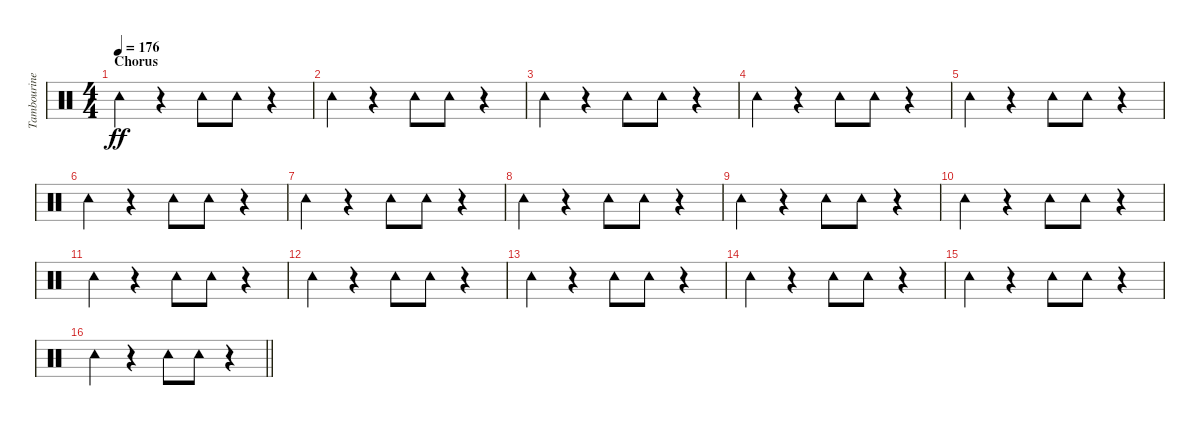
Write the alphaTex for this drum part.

\track ("Tambourine" "Tambourine") {instrument percussion}
\staff {score}
\articulation defaults
\ts (4 4)
\section ("" "Chorus")
\tempo 176
\clef neutral
\ks c "Tambourine (hit)".4{dy ff}
r.4 "Tambourine (hit)".8 "Tambourine (hit)".8 r.4 |
"Tambourine (hit)".4 r.4 "Tambourine (hit)".8 "Tambourine (hit)".8 r.4 |
"Tambourine (hit)".4 r.4 "Tambourine (hit)".8 "Tambourine (hit)".8 r.4 |
"Tambourine (hit)".4 r.4 "Tambourine (hit)".8 "Tambourine (hit)".8 r.4 |
"Tambourine (hit)".4 r.4 "Tambourine (hit)".8 "Tambourine (hit)".8 r.4 |
"Tambourine (hit)".4 r.4 "Tambourine (hit)".8 "Tambourine (hit)".8 r.4 |
"Tambourine (hit)".4 r.4 "Tambourine (hit)".8 "Tambourine (hit)".8 r.4 |
"Tambourine (hit)".4 r.4 "Tambourine (hit)".8 "Tambourine (hit)".8 r.4 |
"Tambourine (hit)".4 r.4 "Tambourine (hit)".8 "Tambourine (hit)".8 r.4 |
"Tambourine (hit)".4 r.4 "Tambourine (hit)".8 "Tambourine (hit)".8 r.4 |
"Tambourine (hit)".4 r.4 "Tambourine (hit)".8 "Tambourine (hit)".8 r.4 |
"Tambourine (hit)".4 r.4 "Tambourine (hit)".8 "Tambourine (hit)".8 r.4 |
"Tambourine (hit)".4 r.4 "Tambourine (hit)".8 "Tambourine (hit)".8 r.4 |
"Tambourine (hit)".4 r.4 "Tambourine (hit)".8 "Tambourine (hit)".8 r.4 |
"Tambourine (hit)".4 r.4 "Tambourine (hit)".8 "Tambourine (hit)".8 r.4 |
\barLineRight lightlight "Tambourine (hit)".4
r.4 "Tambourine (hit)".8 "Tambourine (hit)".8 r.4
